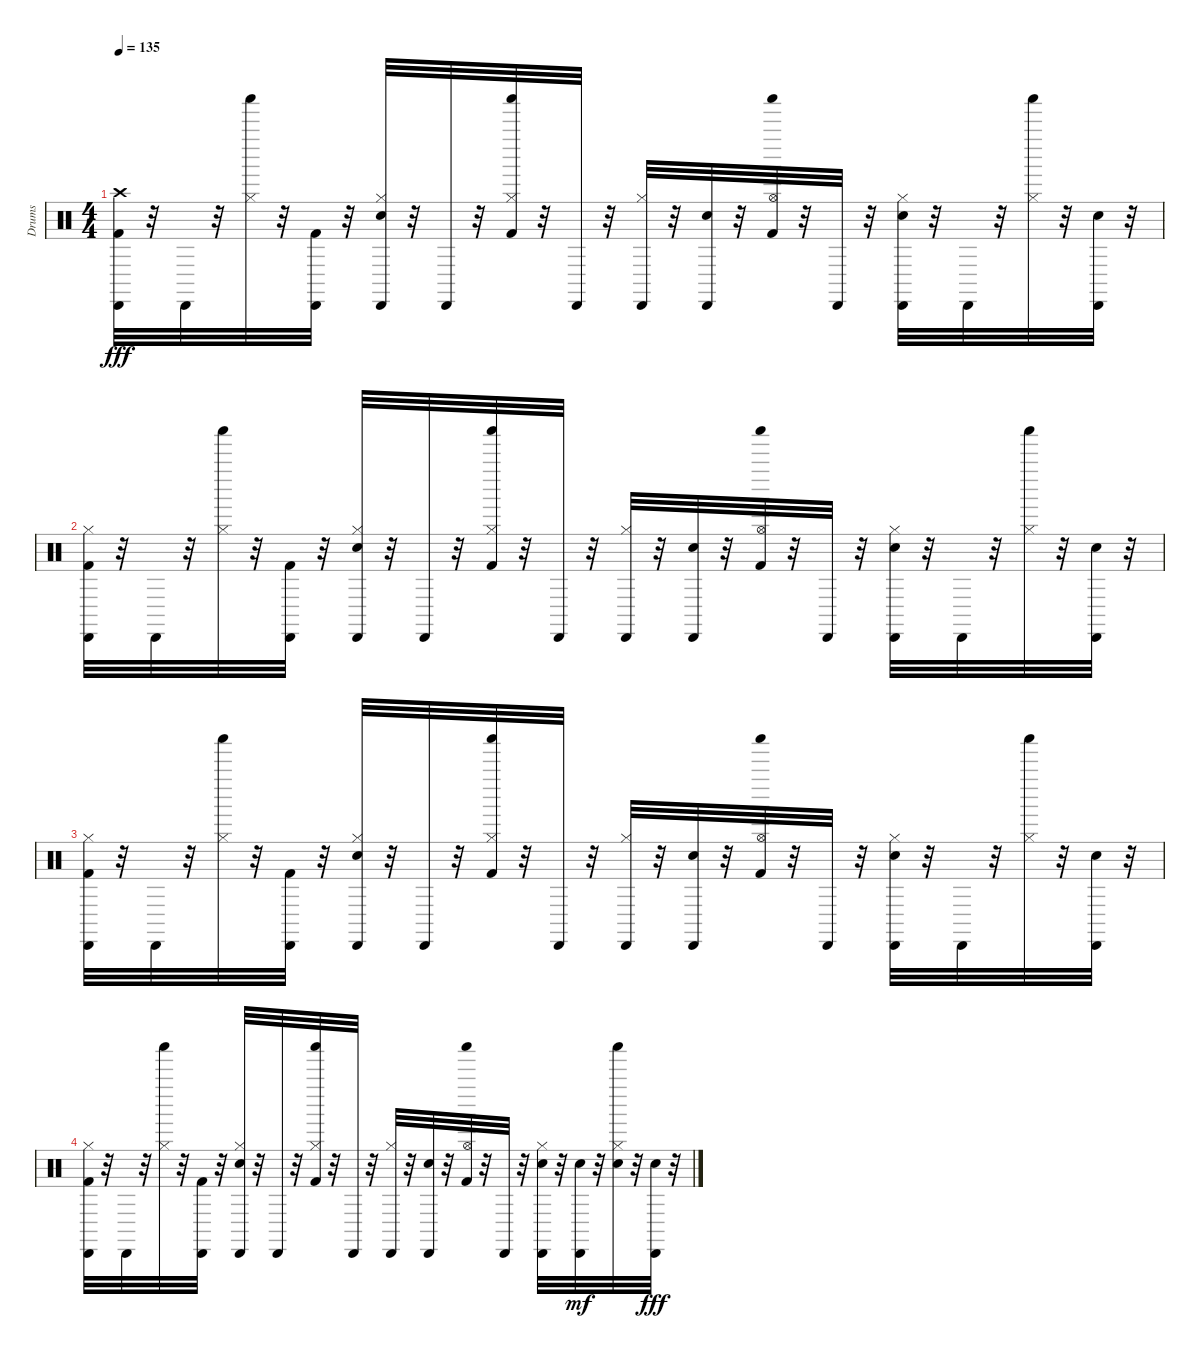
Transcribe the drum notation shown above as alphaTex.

\track ("Drums" "Drums") {instrument percussion}
\staff {score}
\articulation defaults
\ts (4 4)
\tempo 135
\clef neutral
\ks c
("Crash high (hit)" "Kick (hit) 2" "Cabasa (hit)").32{dy fff} r.32 "Cabasa (hit)".32 r.32 ("Shaker (hit)" "Hi-Hat (closed)").32 r.32 ("Kick (hit) 2" "Cabasa (hit)").32 r.32 ("Snare (hit) 2" "Hi-Hat (closed)" "Cabasa (hit)").32 r.32 "Cabasa (hit)".32 r.32 ("Kick (hit) 2" "Shaker (hit)" "Hi-Hat (closed)").32 r.32 "Cabasa (hit)".32 r.32 ("Hi-Hat (closed)" "Cabasa (hit)").32 r.32 ("Snare (hit) 2" "Cabasa (hit)").32 r.32 ("Kick (hit) 2" "Shaker (hit)" "Hi-Hat (open)").32 r.32 "Cabasa (hit)".32 r.32 ("Snare (hit) 2" "Hi-Hat (closed)" "Cabasa (hit)").32 r.32 "Cabasa (hit)".32 r.32 ("Shaker (hit)" "Hi-Hat (closed)").32 r.32 ("Snare (hit) 2" "Cabasa (hit)").32 r.32 |
("Hi-Hat (closed)" "Kick (hit) 2" "Cabasa (hit)").32 r.32 "Cabasa (hit)".32 r.32 ("Shaker (hit)" "Hi-Hat (closed)").32 r.32 ("Kick (hit) 2" "Cabasa (hit)").32 r.32 ("Snare (hit) 2" "Hi-Hat (closed)" "Cabasa (hit)").32 r.32 "Cabasa (hit)".32 r.32 ("Kick (hit) 2" "Shaker (hit)" "Hi-Hat (closed)").32 r.32 "Cabasa (hit)".32 r.32 ("Hi-Hat (closed)" "Cabasa (hit)").32 r.32 ("Snare (hit) 2" "Cabasa (hit)").32 r.32 ("Kick (hit) 2" "Shaker (hit)" "Hi-Hat (open)").32 r.32 "Cabasa (hit)".32 r.32 ("Snare (hit) 2" "Hi-Hat (closed)" "Cabasa (hit)").32 r.32 "Cabasa (hit)".32 r.32 ("Shaker (hit)" "Hi-Hat (closed)").32 r.32 ("Snare (hit) 2" "Cabasa (hit)").32 r.32 |
("Hi-Hat (closed)" "Kick (hit) 2" "Cabasa (hit)").32 r.32 "Cabasa (hit)".32 r.32 ("Shaker (hit)" "Hi-Hat (closed)").32 r.32 ("Kick (hit) 2" "Cabasa (hit)").32 r.32 ("Snare (hit) 2" "Hi-Hat (closed)" "Cabasa (hit)").32 r.32 "Cabasa (hit)".32 r.32 ("Kick (hit) 2" "Shaker (hit)" "Hi-Hat (closed)").32 r.32 "Cabasa (hit)".32 r.32 ("Hi-Hat (closed)" "Cabasa (hit)").32 r.32 ("Snare (hit) 2" "Cabasa (hit)").32 r.32 ("Kick (hit) 2" "Shaker (hit)" "Hi-Hat (open)").32 r.32 "Cabasa (hit)".32 r.32 ("Snare (hit) 2" "Hi-Hat (closed)" "Cabasa (hit)").32 r.32 "Cabasa (hit)".32 r.32 ("Shaker (hit)" "Hi-Hat (closed)").32 r.32 ("Snare (hit) 2" "Cabasa (hit)").32 r.32 |
("Hi-Hat (closed)" "Kick (hit) 2" "Cabasa (hit)").32 r.32 "Cabasa (hit)".32 r.32 ("Shaker (hit)" "Hi-Hat (closed)").32 r.32 ("Kick (hit) 2" "Cabasa (hit)").32 r.32 ("Snare (hit) 2" "Hi-Hat (closed)" "Cabasa (hit)").32 r.32 "Cabasa (hit)".32 r.32 ("Kick (hit) 2" "Shaker (hit)" "Hi-Hat (closed)").32 r.32 "Cabasa (hit)".32 r.32 ("Hi-Hat (closed)" "Cabasa (hit)").32 r.32 ("Snare (hit) 2" "Cabasa (hit)").32 r.32 ("Kick (hit) 2" "Shaker (hit)" "Hi-Hat (open)").32 r.32 "Cabasa (hit)".32 r.32 ("Snare (hit) 2" "Hi-Hat (closed)" "Cabasa (hit)").32 r.32 ("Cabasa (hit)" "Snare (hit) 2").32{dy mf} r.32 ("Shaker (hit)" "Hi-Hat (closed)" "Snare (hit) 2").32 r.32 ("Snare (hit) 2" "Cabasa (hit)").32{dy fff} r.32
